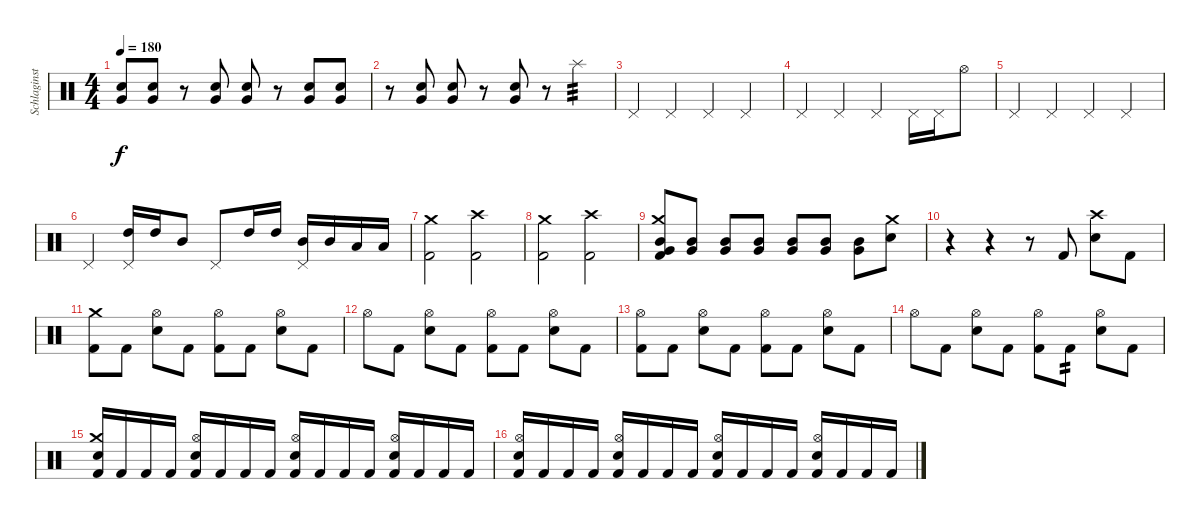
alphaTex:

\track ("Schlaginstrumente - Auswahl" "Schlaginst") {instrument percussion}
\staff {score}
\articulation defaults
\ts (4 4)
\tempo 180
\clef neutral
\ks c
("Electric Snare (hit)" "Very Low Tom (hit)").8{dy f} ("Electric Snare (hit)" "Very Low Tom (hit)").8 r.8 ("Electric Snare (hit)" "Very Low Tom (hit)").8 ("Electric Snare (hit)" "Very Low Tom (hit)").8 r.8 ("Electric Snare (hit)" "Very Low Tom (hit)").8 ("Electric Snare (hit)" "Very Low Tom (hit)").8 |
r.8 ("Electric Snare (hit)" "Very Low Tom (hit)").8 ("Electric Snare (hit)" "Very Low Tom (hit)").8 r.8 ("Electric Snare (hit)" "Very Low Tom (hit)").8 r.8 "Splash (hit)".4{tp 3} |
"Pedal Hi-Hat (hit)".4 "Pedal Hi-Hat (hit)".4 "Pedal Hi-Hat (hit)".4 "Pedal Hi-Hat (hit)".4 |
"Pedal Hi-Hat (hit)".4 "Pedal Hi-Hat (hit)".4 "Pedal Hi-Hat (hit)".4 "Pedal Hi-Hat (hit)".16 "Pedal Hi-Hat (hit)".16 "Hi-Hat (open)".8 |
"Pedal Hi-Hat (hit)".4 "Pedal Hi-Hat (hit)".4 "Pedal Hi-Hat (hit)".4 "Pedal Hi-Hat (hit)".4 |
"Pedal Hi-Hat (hit)".4 ("Pedal Hi-Hat (hit)" "High Tom (hit)").16 "High Tom (hit)".16 "Mid Tom (hit)".8 "Pedal Hi-Hat (hit)".8 "High Tom (hit)".16 "High Tom (hit)".16 ("Pedal Hi-Hat (hit)" "Mid Tom (hit)").16 "Mid Tom (hit)".16 "Low Tom (hit)".16 "Low Tom (hit)".16 |
("Crash medium (hit)" "Kick (hit) 2").2 ("Crash high (hit)" "Kick (hit) 2").2 |
("Crash medium (hit)" "Kick (hit) 2").2 ("Crash high (hit)" "Kick (hit) 2").2 |
("Crash medium (hit)" "Mid Tom (hit)" "Very Low Tom (hit)" "Kick (hit) 2").8 ("Mid Tom (hit)" "Very Low Tom (hit)").8 ("Mid Tom (hit)" "Very Low Tom (hit)").8 ("Mid Tom (hit)" "Very Low Tom (hit)").8 ("Mid Tom (hit)" "Very Low Tom (hit)").8 ("Mid Tom (hit)" "Very Low Tom (hit)").8 ("Mid Tom (hit)" "Very Low Tom (hit)").8 ("Crash medium (hit)" "Electric Snare (hit)").8 |
r.4 r.4 r.8 "Kick (hit) 2".8 ("Crash high (hit)" "Electric Snare (hit)").8 "Kick (hit) 2".8 |
("Crash medium (hit)" "Kick (hit) 2").8 "Kick (hit) 2".8 ("Hi-Hat (open)" "Electric Snare (hit)").8 "Kick (hit) 2".8 ("Hi-Hat (open)" "Kick (hit) 2").8 "Kick (hit) 2".8 ("Hi-Hat (open)" "Electric Snare (hit)").8 "Kick (hit) 2".8 |
"Hi-Hat (open)".8 "Kick (hit) 2".8 ("Hi-Hat (open)" "Electric Snare (hit)").8 "Kick (hit) 2".8 ("Hi-Hat (open)" "Kick (hit) 2").8 "Kick (hit) 2".8 ("Hi-Hat (open)" "Electric Snare (hit)").8 "Kick (hit) 2".8 |
("Hi-Hat (open)" "Kick (hit) 2").8 "Kick (hit) 2".8 ("Hi-Hat (open)" "Electric Snare (hit)").8 "Kick (hit) 2".8 ("Hi-Hat (open)" "Kick (hit) 2").8 "Kick (hit) 2".8 ("Hi-Hat (open)" "Electric Snare (hit)").8 "Kick (hit) 2".8 |
"Hi-Hat (open)".8 "Kick (hit) 2".8 ("Hi-Hat (open)" "Electric Snare (hit)").8 "Kick (hit) 2".8 ("Hi-Hat (open)" "Kick (hit) 2").8 "Kick (hit) 2".8{tp 2} ("Hi-Hat (open)" "Electric Snare (hit)").8 "Kick (hit) 2".8 |
("Crash medium (hit)" "Electric Snare (hit)" "Kick (hit) 2").16 "Kick (hit) 2".16 "Kick (hit) 2".16 "Kick (hit) 2".16 ("Hi-Hat (open)" "Electric Snare (hit)" "Kick (hit) 2").16 "Kick (hit) 2".16 "Kick (hit) 2".16 "Kick (hit) 2".16 ("Hi-Hat (open)" "Electric Snare (hit)" "Kick (hit) 2").16 "Kick (hit) 2".16 "Kick (hit) 2".16 "Kick (hit) 2".16 ("Hi-Hat (open)" "Electric Snare (hit)" "Kick (hit) 2").16 "Kick (hit) 2".16 "Kick (hit) 2".16 "Kick (hit) 2".16 |
("Hi-Hat (open)" "Electric Snare (hit)" "Kick (hit) 2").16 "Kick (hit) 2".16 "Kick (hit) 2".16 "Kick (hit) 2".16 ("Hi-Hat (open)" "Electric Snare (hit)" "Kick (hit) 2").16 "Kick (hit) 2".16 "Kick (hit) 2".16 "Kick (hit) 2".16 ("Hi-Hat (open)" "Electric Snare (hit)" "Kick (hit) 2").16 "Kick (hit) 2".16 "Kick (hit) 2".16 "Kick (hit) 2".16 ("Hi-Hat (open)" "Electric Snare (hit)" "Kick (hit) 2").16 "Kick (hit) 2".16 "Kick (hit) 2".16 "Kick (hit) 2".16
